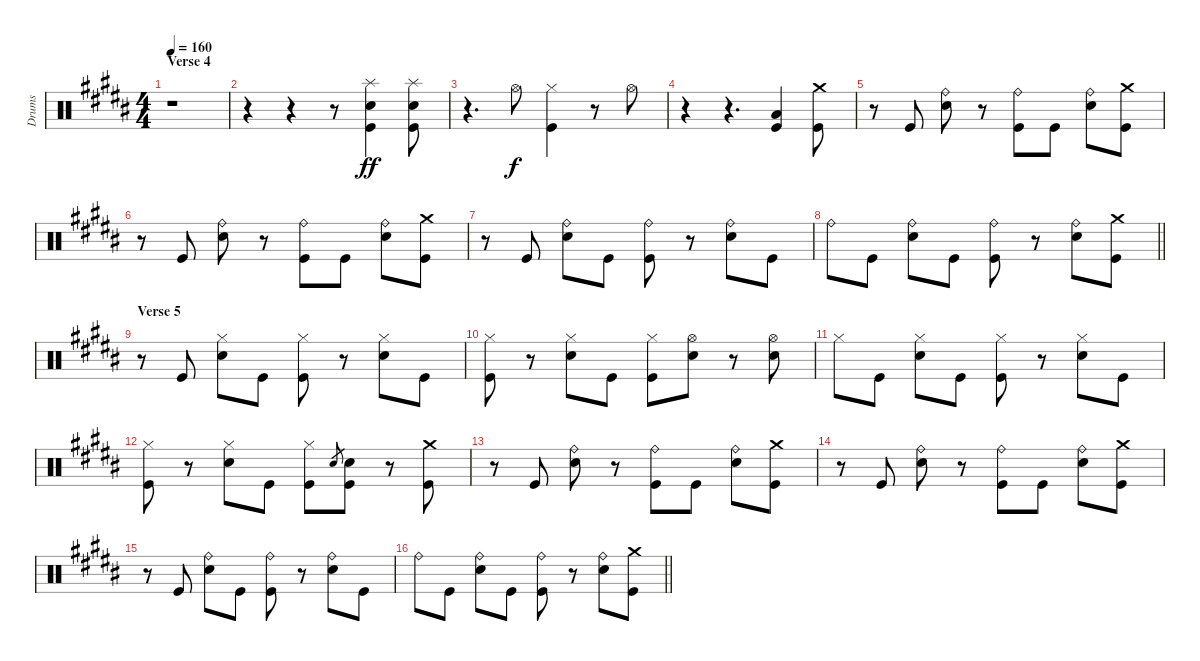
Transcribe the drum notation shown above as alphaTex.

\track ("Drums" "Drums") {instrument percussion}
\staff {score}
\articulation defaults
\ts (4 4)
\section ("" "Verse 4")
\tempo 160
\clef neutral
\ks b
r.1{dy f} |
r.4 r.4 r.8 ("Splash (hit)" "Snare (hit) 2" "Kick (hit)").4{dy ff} ("Splash (hit)" "Snare (hit) 2" "Kick (hit)").8 |
r.4{d} "Hi-Hat (open)".8{dy f} ("Hi-Hat (closed)" "Kick (hit)").4 r.8 "Hi-Hat (open)".8 |
r.4 r.4{d} ("Low Floor Tom (hit)" "Kick (hit)").4 ("Crash medium (hit)" "Kick (hit)").8 |
r.8 "Kick (hit)".8 ("Ride (bell)" "Snare (hit) 2").8 r.8 ("Ride (bell)" "Kick (hit)").8 "Kick (hit)".8 ("Ride (bell)" "Snare (hit) 2").8 ("Crash medium (hit)" "Kick (hit)").8 |
r.8 "Kick (hit)".8 ("Ride (bell)" "Snare (hit) 2").8 r.8 ("Ride (bell)" "Kick (hit)").8 "Kick (hit)".8 ("Ride (bell)" "Snare (hit) 2").8 ("Crash medium (hit)" "Kick (hit)").8 |
r.8 "Kick (hit)".8 ("Ride (bell)" "Snare (hit) 2").8 "Kick (hit)".8 ("Ride (bell)" "Kick (hit)").8 r.8 ("Ride (bell)" "Snare (hit) 2").8 "Kick (hit)".8 |
\barLineRight lightlight "Ride (bell)".8 "Kick (hit)".8
("Ride (bell)" "Snare (hit) 2").8 "Kick (hit)".8 ("Ride (bell)" "Kick (hit)").8 r.8 ("Ride (bell)" "Snare (hit) 2").8 ("Crash medium (hit)" "Kick (hit)").8 |
\section ("" "Verse 5")
r.8 "Kick (hit)".8 ("Hi-Hat (closed)" "Snare (hit) 2").8 "Kick (hit)".8 ("Hi-Hat (closed)" "Kick (hit)").8 r.8 ("Hi-Hat (closed)" "Snare (hit) 2").8 "Kick (hit)".8 |
("Hi-Hat (closed)" "Kick (hit)").8 r.8 ("Hi-Hat (closed)" "Snare (hit) 2").8 "Kick (hit)".8 ("Hi-Hat (closed)" "Kick (hit)").8 ("Hi-Hat (open)" "Snare (hit) 2").8 r.8 ("Hi-Hat (open)" "Snare (hit) 2").8 |
"Hi-Hat (closed)".8 "Kick (hit)".8 ("Hi-Hat (closed)" "Snare (hit) 2").8 "Kick (hit)".8 ("Hi-Hat (closed)" "Kick (hit)").8 r.8 ("Hi-Hat (closed)" "Snare (hit) 2").8 "Kick (hit)".8 |
("Hi-Hat (closed)" "Kick (hit)").8 r.8 ("Hi-Hat (closed)" "Snare (hit) 2").8 "Kick (hit)".8 ("Hi-Hat (closed)" "Kick (hit)").8 "Snare (hit) 2".8{gr} ("Snare (hit) 2" "Kick (hit)").8 r.8 ("Crash medium (hit)" "Kick (hit)").8 |
r.8 "Kick (hit)".8 ("Ride (bell)" "Snare (hit) 2").8 r.8 ("Ride (bell)" "Kick (hit)").8 "Kick (hit)".8 ("Ride (bell)" "Snare (hit) 2").8 ("Crash medium (hit)" "Kick (hit)").8 |
r.8 "Kick (hit)".8 ("Ride (bell)" "Snare (hit) 2").8 r.8 ("Ride (bell)" "Kick (hit)").8 "Kick (hit)".8 ("Ride (bell)" "Snare (hit) 2").8 ("Crash medium (hit)" "Kick (hit)").8 |
r.8 "Kick (hit)".8 ("Ride (bell)" "Snare (hit) 2").8 "Kick (hit)".8 ("Ride (bell)" "Kick (hit)").8 r.8 ("Ride (bell)" "Snare (hit) 2").8 "Kick (hit)".8 |
\barLineRight lightlight "Ride (bell)".8 "Kick (hit)".8
("Ride (bell)" "Snare (hit) 2").8 "Kick (hit)".8 ("Ride (bell)" "Kick (hit)").8 r.8 ("Ride (bell)" "Snare (hit) 2").8 ("Crash medium (hit)" "Kick (hit)").8
